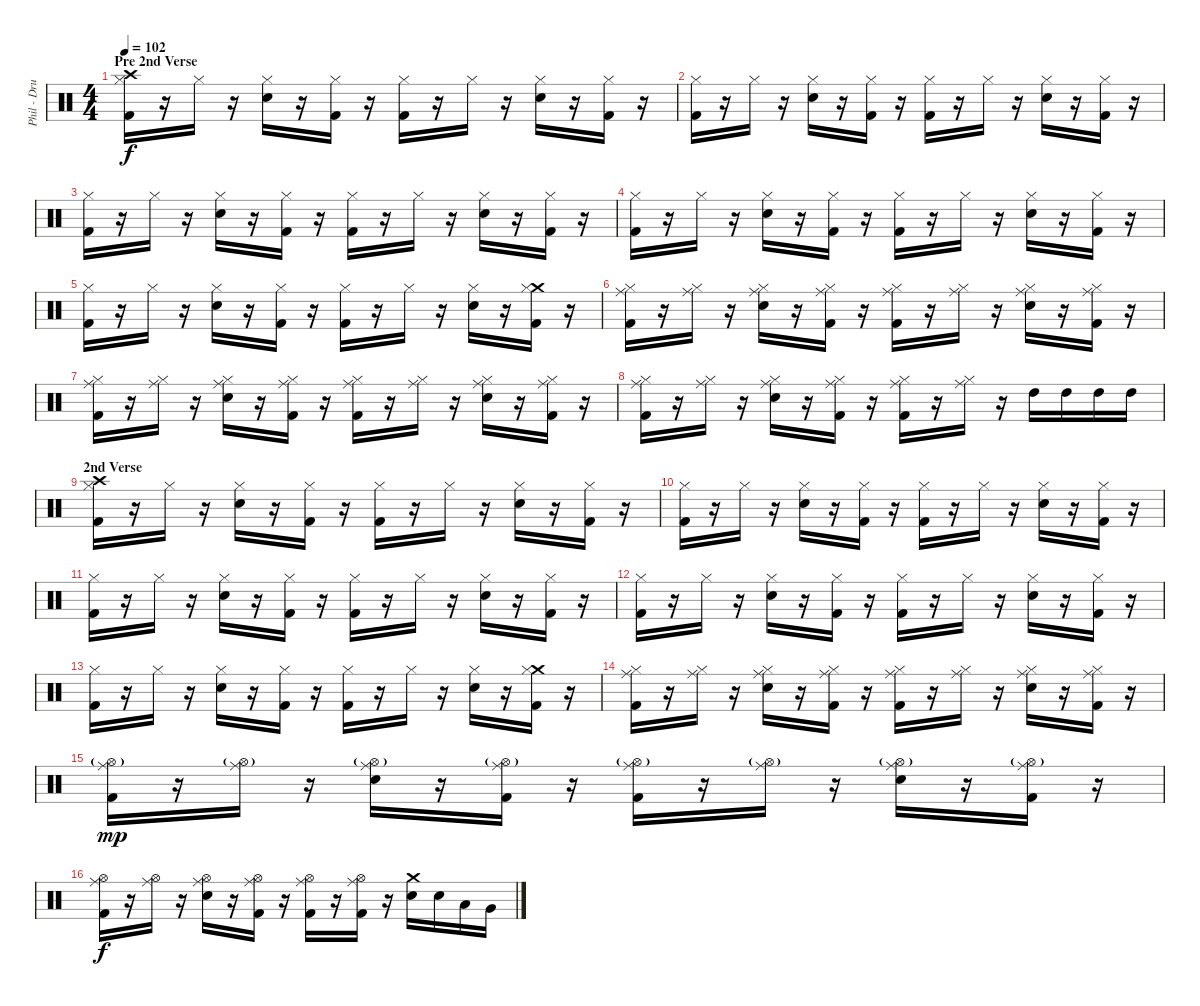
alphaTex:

\track ("Phil - Drums" "Phil - Dru") {instrument percussion}
\staff {score}
\articulation defaults
\ts (4 4)
\section ("" "Pre 2nd Verse")
\tempo 102
\clef neutral
\ks c
("Crash high (hit)" "Kick (hit) 2" "Hi-Hat (closed)").16{dy f} r.16 "Hi-Hat (closed)".16 r.16 ("Snare (hit) 2" "Hi-Hat (closed)").16 r.16 ("Kick (hit) 2" "Hi-Hat (closed)").16 r.16 ("Kick (hit) 2" "Hi-Hat (closed)").16 r.16 "Hi-Hat (closed)".16 r.16 ("Snare (hit) 2" "Hi-Hat (closed)").16 r.16 ("Kick (hit) 2" "Hi-Hat (closed)").16 r.16 |
("Kick (hit) 2" "Hi-Hat (closed)").16 r.16 "Hi-Hat (closed)".16 r.16 ("Snare (hit) 2" "Hi-Hat (closed)").16 r.16 ("Kick (hit) 2" "Hi-Hat (closed)").16 r.16 ("Kick (hit) 2" "Hi-Hat (closed)").16 r.16 "Hi-Hat (closed)".16 r.16 ("Snare (hit) 2" "Hi-Hat (closed)").16 r.16 ("Kick (hit) 2" "Hi-Hat (closed)").16 r.16 |
("Kick (hit) 2" "Hi-Hat (closed)").16 r.16 "Hi-Hat (closed)".16 r.16 ("Snare (hit) 2" "Hi-Hat (closed)").16 r.16 ("Kick (hit) 2" "Hi-Hat (closed)").16 r.16 ("Kick (hit) 2" "Hi-Hat (closed)").16 r.16 "Hi-Hat (closed)".16 r.16 ("Snare (hit) 2" "Hi-Hat (closed)").16 r.16 ("Kick (hit) 2" "Hi-Hat (closed)").16 r.16 |
("Kick (hit) 2" "Hi-Hat (closed)").16 r.16 "Hi-Hat (closed)".16 r.16 ("Snare (hit) 2" "Hi-Hat (closed)").16 r.16 ("Kick (hit) 2" "Hi-Hat (closed)").16 r.16 ("Kick (hit) 2" "Hi-Hat (closed)").16 r.16 "Hi-Hat (closed)".16 r.16 ("Snare (hit) 2" "Hi-Hat (closed)").16 r.16 ("Kick (hit) 2" "Hi-Hat (closed)").16 r.16 |
("Kick (hit) 2" "Hi-Hat (closed)").16 r.16 "Hi-Hat (closed)".16 r.16 ("Snare (hit) 2" "Hi-Hat (closed)").16 r.16 ("Kick (hit) 2" "Hi-Hat (closed)").16 r.16 ("Kick (hit) 2" "Hi-Hat (closed)").16 r.16 "Hi-Hat (closed)".16 r.16 ("Snare (hit) 2" "Hi-Hat (closed)").16 r.16 ("Crash medium (hit)" "Kick (hit) 2" "Hi-Hat (closed)").16 r.16 |
("Ride (middle)" "Kick (hit) 2" "Hi-Hat (closed)").16 r.16 ("Ride (middle)" "Hi-Hat (closed)").16 r.16 ("Ride (middle)" "Snare (hit) 2" "Hi-Hat (closed)").16 r.16 ("Ride (middle)" "Kick (hit) 2" "Hi-Hat (closed)").16 r.16 ("Ride (middle)" "Kick (hit) 2" "Hi-Hat (closed)").16 r.16 ("Ride (middle)" "Hi-Hat (closed)").16 r.16 ("Ride (middle)" "Snare (hit) 2" "Hi-Hat (closed)").16 r.16 ("Ride (middle)" "Kick (hit) 2" "Hi-Hat (closed)").16 r.16 |
("Ride (middle)" "Kick (hit) 2" "Hi-Hat (closed)").16 r.16 ("Ride (middle)" "Hi-Hat (closed)").16 r.16 ("Ride (middle)" "Snare (hit) 2" "Hi-Hat (closed)").16 r.16 ("Ride (middle)" "Kick (hit) 2" "Hi-Hat (closed)").16 r.16 ("Ride (middle)" "Kick (hit) 2" "Hi-Hat (closed)").16 r.16 ("Ride (middle)" "Hi-Hat (closed)").16 r.16 ("Ride (middle)" "Snare (hit) 2" "Hi-Hat (closed)").16 r.16 ("Ride (middle)" "Kick (hit) 2" "Hi-Hat (closed)").16 r.16 |
("Ride (middle)" "Kick (hit) 2" "Hi-Hat (closed)").16 r.16 ("Ride (middle)" "Hi-Hat (closed)").16 r.16 ("Ride (middle)" "Snare (hit) 2" "Hi-Hat (closed)").16 r.16 ("Ride (middle)" "Kick (hit) 2" "Hi-Hat (closed)").16 r.16 ("Ride (middle)" "Kick (hit) 2" "Hi-Hat (closed)").16 r.16 ("Ride (middle)" "Hi-Hat (closed)").16 r.16 "High Tom (hit)".16 "High Tom (hit)".16 "High Tom (hit)".16 "High Tom (hit)".16 |
\section ("" "2nd Verse")
("Crash high (hit)" "Kick (hit) 2" "Hi-Hat (closed)").16 r.16 "Hi-Hat (closed)".16 r.16 ("Snare (hit) 2" "Hi-Hat (closed)").16 r.16 ("Kick (hit) 2" "Hi-Hat (closed)").16 r.16 ("Kick (hit) 2" "Hi-Hat (closed)").16 r.16 "Hi-Hat (closed)".16 r.16 ("Snare (hit) 2" "Hi-Hat (closed)").16 r.16 ("Kick (hit) 2" "Hi-Hat (closed)").16 r.16 |
("Kick (hit) 2" "Hi-Hat (closed)").16 r.16 "Hi-Hat (closed)".16 r.16 ("Snare (hit) 2" "Hi-Hat (closed)").16 r.16 ("Kick (hit) 2" "Hi-Hat (closed)").16 r.16 ("Kick (hit) 2" "Hi-Hat (closed)").16 r.16 "Hi-Hat (closed)".16 r.16 ("Snare (hit) 2" "Hi-Hat (closed)").16 r.16 ("Kick (hit) 2" "Hi-Hat (closed)").16 r.16 |
("Kick (hit) 2" "Hi-Hat (closed)").16 r.16 "Hi-Hat (closed)".16 r.16 ("Snare (hit) 2" "Hi-Hat (closed)").16 r.16 ("Kick (hit) 2" "Hi-Hat (closed)").16 r.16 ("Kick (hit) 2" "Hi-Hat (closed)").16 r.16 "Hi-Hat (closed)".16 r.16 ("Snare (hit) 2" "Hi-Hat (closed)").16 r.16 ("Kick (hit) 2" "Hi-Hat (closed)").16 r.16 |
("Kick (hit) 2" "Hi-Hat (closed)").16 r.16 "Hi-Hat (closed)".16 r.16 ("Snare (hit) 2" "Hi-Hat (closed)").16 r.16 ("Kick (hit) 2" "Hi-Hat (closed)").16 r.16 ("Kick (hit) 2" "Hi-Hat (closed)").16 r.16 "Hi-Hat (closed)".16 r.16 ("Snare (hit) 2" "Hi-Hat (closed)").16 r.16 ("Kick (hit) 2" "Hi-Hat (closed)").16 r.16 |
("Kick (hit) 2" "Hi-Hat (closed)").16 r.16 "Hi-Hat (closed)".16 r.16 ("Snare (hit) 2" "Hi-Hat (closed)").16 r.16 ("Kick (hit) 2" "Hi-Hat (closed)").16 r.16 ("Kick (hit) 2" "Hi-Hat (closed)").16 r.16 "Hi-Hat (closed)".16 r.16 ("Snare (hit) 2" "Hi-Hat (closed)").16 r.16 ("Crash medium (hit)" "Kick (hit) 2" "Hi-Hat (closed)").16 r.16 |
("Ride (middle)" "Kick (hit) 2" "Hi-Hat (closed)").16 r.16 ("Ride (middle)" "Hi-Hat (closed)").16 r.16 ("Ride (middle)" "Snare (hit) 2" "Hi-Hat (closed)").16 r.16 ("Ride (middle)" "Kick (hit) 2" "Hi-Hat (closed)").16 r.16 ("Ride (middle)" "Kick (hit) 2" "Hi-Hat (closed)").16 r.16 ("Ride (middle)" "Hi-Hat (closed)").16 r.16 ("Ride (middle)" "Snare (hit) 2" "Hi-Hat (closed)").16 r.16 ("Ride (middle)" "Kick (hit) 2" "Hi-Hat (closed)").16 r.16 |
("Ride (middle)" "Kick (hit) 2" "Hi-Hat (open)"{g}).16{dy mp} r.16 ("Ride (middle)" "Hi-Hat (open)"{g}).16 r.16 ("Ride (middle)" "Snare (hit) 2" "Hi-Hat (open)"{g}).16 r.16 ("Ride (middle)" "Kick (hit) 2" "Hi-Hat (open)"{g}).16 r.16 ("Ride (middle)" "Kick (hit) 2" "Hi-Hat (open)"{g}).16 r.16 ("Ride (middle)" "Hi-Hat (open)"{g}).16 r.16 ("Ride (middle)" "Snare (hit) 2" "Hi-Hat (open)"{g}).16 r.16 ("Ride (middle)" "Kick (hit) 2" "Hi-Hat (open)"{g}).16 r.16 |
("Ride (middle)" "Kick (hit) 2" "Hi-Hat (open)").16{dy f} r.16 ("Ride (middle)" "Hi-Hat (open)").16 r.16 ("Ride (middle)" "Snare (hit) 2" "Hi-Hat (open)").16 r.16 ("Ride (middle)" "Kick (hit) 2" "Hi-Hat (open)").16 r.16 ("Ride (middle)" "Kick (hit) 2" "Hi-Hat (open)").16 r.16 ("Ride (middle)" "Kick (hit) 2" "Hi-Hat (open)").16 r.16 ("Crash medium (hit)" "Electric Snare (hit)").16 "Electric Snare (hit)".16 "Low Tom (hit)".16 "Very Low Tom (hit)".16
